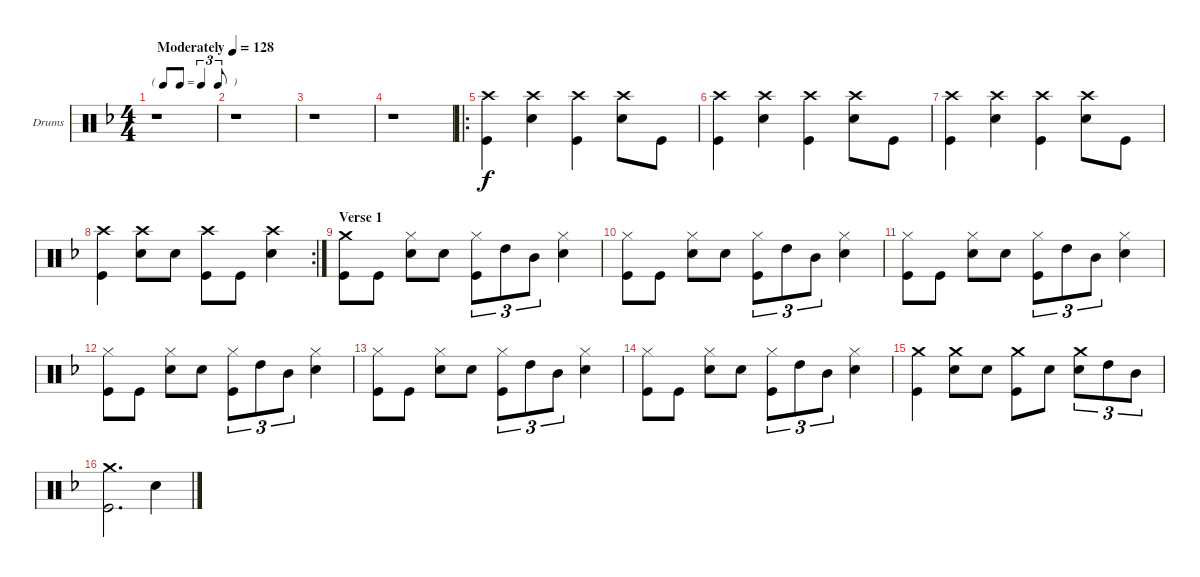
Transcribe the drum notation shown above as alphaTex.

\defaultSystemsLayout 4
\bracketExtendMode groupsimilarinstruments
\firstSystemTrackNameOrientation horizontal
\otherSystemsTrackNameOrientation horizontal
\track ("Drumkit" "Drums") {instrument percussion}
\staff {score}
\articulation defaults
\ts (4 4)
\tf triplet8th
\tempo (128 "Moderately")
\clef neutral
\scale
0.502222
\ks f
r.1{dy f} |
\scale
0.248889 r.1 |
\scale
0.248889 r.1 |
\scale
0.311111 r.1 |
\ro
\scale
0.377778 ("Kick (hit)" "Crash high (hit)").4 ("Snare (hit) 2" "Crash high (hit)").4 ("Kick (hit)" "Crash high (hit)").4 ("Snare (hit) 2" "Crash high (hit)").8 "Kick (hit)".8 |
\scale
0.311111 ("Kick (hit)" "Crash high (hit)").4 ("Snare (hit) 2" "Crash high (hit)").4 ("Kick (hit)" "Crash high (hit)").4 ("Snare (hit) 2" "Crash high (hit)").8 "Kick (hit)".8 |
\scale
0.321839 ("Kick (hit)" "Crash high (hit)").4 ("Snare (hit) 2" "Crash high (hit)").4 ("Kick (hit)" "Crash high (hit)").4 ("Snare (hit) 2" "Crash high (hit)").8 "Kick (hit)".8 |
\rc 2
\scale
0.356322 ("Kick (hit)" "Crash high (hit)").4 ("Snare (hit) 2" "Crash high (hit)").8 "Snare (hit) 2".8 ("Crash high (hit)" "Kick (hit)").8 "Kick (hit)".8 ("Snare (hit) 2" "Crash high (hit)").4 |
\section ("" "Verse 1")
\scale
0.321839 ("Crash medium (hit)" "Kick (hit)").8 "Kick (hit)".8 ("Hi-Hat (closed)" "Snare (hit) 2").8 "Snare (hit) 2".8 ("Hi-Hat (closed)" "Kick (hit)").8{tu (3 2)} "High Tom (hit)".8{tu (3 2)} "Mid Tom (hit)".8{tu (3 2)} ("Hi-Hat (closed)" "Snare (hit) 2").4 |
\scale
0.333333 ("Kick (hit)" "Hi-Hat (closed)").8 "Kick (hit)".8 ("Hi-Hat (closed)" "Snare (hit) 2").8 "Snare (hit) 2".8 ("Hi-Hat (closed)" "Kick (hit)").8{tu (3 2)} "High Tom (hit)".8{tu (3 2)} "Mid Tom (hit)".8{tu (3 2)} ("Hi-Hat (closed)" "Snare (hit) 2").4 |
\scale
0.333333 ("Kick (hit)" "Hi-Hat (closed)").8 "Kick (hit)".8 ("Hi-Hat (closed)" "Snare (hit) 2").8 "Snare (hit) 2".8 ("Hi-Hat (closed)" "Kick (hit)").8{tu (3 2)} "High Tom (hit)".8{tu (3 2)} "Mid Tom (hit)".8{tu (3 2)} ("Hi-Hat (closed)" "Snare (hit) 2").4 |
\scale
0.333333 ("Kick (hit)" "Hi-Hat (closed)").8 "Kick (hit)".8 ("Hi-Hat (closed)" "Snare (hit) 2").8 "Snare (hit) 2".8 ("Hi-Hat (closed)" "Kick (hit)").8{tu (3 2)} "High Tom (hit)".8{tu (3 2)} "Mid Tom (hit)".8{tu (3 2)} ("Hi-Hat (closed)" "Snare (hit) 2").4 |
\scale
0.333333 ("Kick (hit)" "Hi-Hat (closed)").8 "Kick (hit)".8 ("Hi-Hat (closed)" "Snare (hit) 2").8 "Snare (hit) 2".8 ("Hi-Hat (closed)" "Kick (hit)").8{tu (3 2)} "High Tom (hit)".8{tu (3 2)} "Mid Tom (hit)".8{tu (3 2)} ("Hi-Hat (closed)" "Snare (hit) 2").4 |
\scale
0.333333 ("Kick (hit)" "Hi-Hat (closed)").8 "Kick (hit)".8 ("Hi-Hat (closed)" "Snare (hit) 2").8 "Snare (hit) 2".8 ("Hi-Hat (closed)" "Kick (hit)").8{tu (3 2)} "High Tom (hit)".8{tu (3 2)} "Mid Tom (hit)".8{tu (3 2)} ("Hi-Hat (closed)" "Snare (hit) 2").4 |
\scale
0.333333 ("Crash medium (hit)" "Kick (hit)").4 ("Crash medium (hit)" "Snare (hit) 2").8 "Snare (hit) 2".8 ("Crash medium (hit)" "Kick (hit)").8 "Snare (hit) 2".8 ("Snare (hit) 2" "Crash medium (hit)").8{tu (3 2)} "High Tom (hit)".8{tu (3 2)} "Mid Tom (hit)".8{tu (3 2)} |
\scale
0.333333 ("Kick (hit)" "Crash medium (hit)").2{d} "Snare (hit) 2".4
